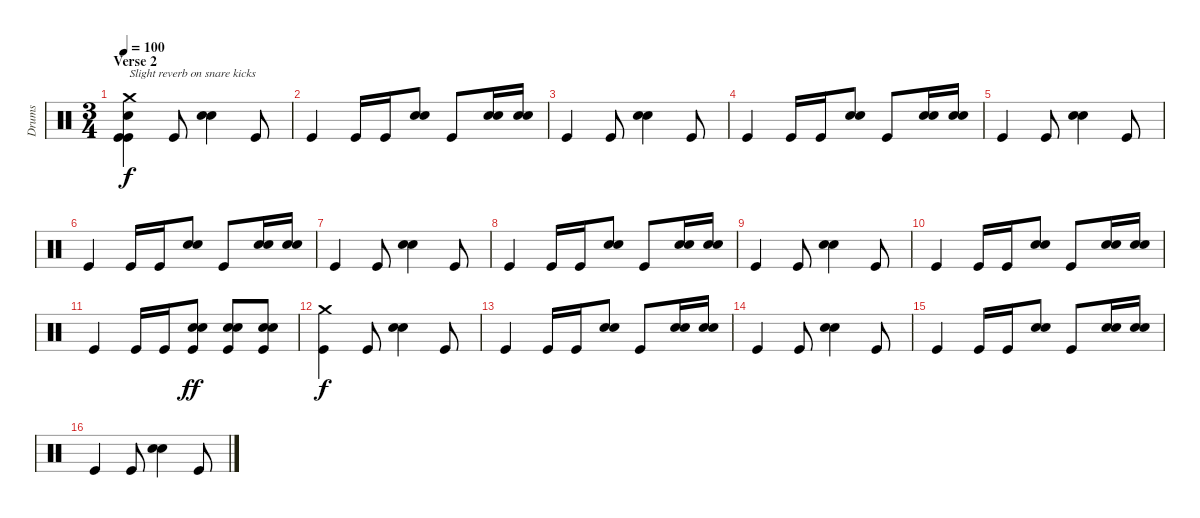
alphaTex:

\track ("Drums" "Drums") {instrument percussion}
\staff {score}
\articulation defaults
\ts (3 4)
\section ("" "Verse 2")
\tempo 100
\clef neutral
\ks c
("Crash medium (hit)" "Kick (hit)" "Electric Snare (hit)" "Kick (hit)").4{txt "Slight reverb on snare kicks" dy f} "Kick (hit)".8 ("Snare (hit) 2" "Electric Snare (hit)").4 "Kick (hit)".8 |
"Kick (hit)".4 "Kick (hit)".16 "Kick (hit)".16 ("Snare (hit) 2" "Electric Snare (hit)").8 "Kick (hit)".8 ("Snare (hit) 2" "Electric Snare (hit)").16 ("Snare (hit) 2" "Electric Snare (hit)").16 |
"Kick (hit)".4 "Kick (hit)".8 ("Snare (hit) 2" "Electric Snare (hit)").4 "Kick (hit)".8 |
"Kick (hit)".4 "Kick (hit)".16 "Kick (hit)".16 ("Snare (hit) 2" "Electric Snare (hit)").8 "Kick (hit)".8 ("Snare (hit) 2" "Electric Snare (hit)").16 ("Snare (hit) 2" "Electric Snare (hit)").16 |
"Kick (hit)".4 "Kick (hit)".8 ("Snare (hit) 2" "Electric Snare (hit)").4 "Kick (hit)".8 |
"Kick (hit)".4 "Kick (hit)".16 "Kick (hit)".16 ("Snare (hit) 2" "Electric Snare (hit)").8 "Kick (hit)".8 ("Snare (hit) 2" "Electric Snare (hit)").16 ("Snare (hit) 2" "Electric Snare (hit)").16 |
"Kick (hit)".4 "Kick (hit)".8 ("Snare (hit) 2" "Electric Snare (hit)").4 "Kick (hit)".8 |
"Kick (hit)".4 "Kick (hit)".16 "Kick (hit)".16 ("Snare (hit) 2" "Electric Snare (hit)").8 "Kick (hit)".8 ("Snare (hit) 2" "Electric Snare (hit)").16 ("Snare (hit) 2" "Electric Snare (hit)").16 |
"Kick (hit)".4 "Kick (hit)".8 ("Snare (hit) 2" "Electric Snare (hit)").4 "Kick (hit)".8 |
"Kick (hit)".4 "Kick (hit)".16 "Kick (hit)".16 ("Snare (hit) 2" "Electric Snare (hit)").8 "Kick (hit)".8 ("Snare (hit) 2" "Electric Snare (hit)").16 ("Snare (hit) 2" "Electric Snare (hit)").16 |
"Kick (hit)".4 "Kick (hit)".16 "Kick (hit)".16 ("Snare (hit) 2" "Electric Snare (hit)" "Kick (hit)").8{dy ff} ("Snare (hit) 2" "Electric Snare (hit)" "Kick (hit)").8 ("Snare (hit) 2" "Electric Snare (hit)" "Kick (hit)").8 |
("Crash medium (hit)" "Kick (hit)").4{dy f} "Kick (hit)".8 ("Snare (hit) 2" "Electric Snare (hit)").4 "Kick (hit)".8 |
"Kick (hit)".4 "Kick (hit)".16 "Kick (hit)".16 ("Snare (hit) 2" "Electric Snare (hit)").8 "Kick (hit)".8 ("Snare (hit) 2" "Electric Snare (hit)").16 ("Snare (hit) 2" "Electric Snare (hit)").16 |
"Kick (hit)".4 "Kick (hit)".8 ("Snare (hit) 2" "Electric Snare (hit)").4 "Kick (hit)".8 |
"Kick (hit)".4 "Kick (hit)".16 "Kick (hit)".16 ("Snare (hit) 2" "Electric Snare (hit)").8 "Kick (hit)".8 ("Snare (hit) 2" "Electric Snare (hit)").16 ("Snare (hit) 2" "Electric Snare (hit)").16 |
"Kick (hit)".4 "Kick (hit)".8 ("Snare (hit) 2" "Electric Snare (hit)").4 "Kick (hit)".8
